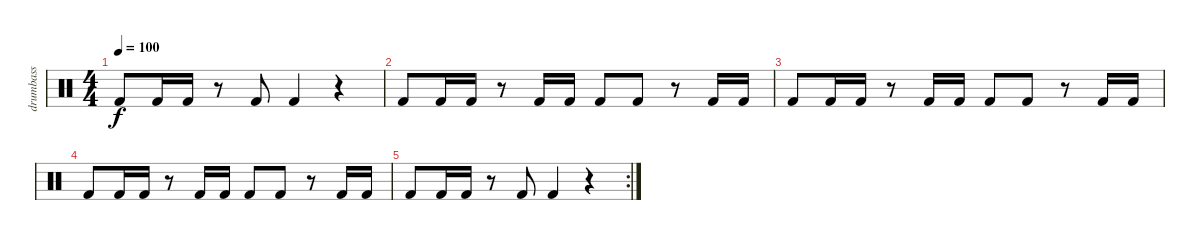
\track ("drumbass" "drumbass") {instrument percussion}
\staff {score}
\articulation defaults
\ts (4 4)
\tempo 100
\clef neutral
\ks c "Kick (hit) 2".8{dy f} "Kick (hit) 2".16 "Kick (hit) 2".16
r.8 "Kick (hit) 2".8 "Kick (hit) 2".4 r.4 |
"Kick (hit) 2".8 "Kick (hit) 2".16 "Kick (hit) 2".16 r.8 "Kick (hit) 2".16 "Kick (hit) 2".16 "Kick (hit) 2".8 "Kick (hit) 2".8 r.8 "Kick (hit) 2".16 "Kick (hit) 2".16 |
"Kick (hit) 2".8 "Kick (hit) 2".16 "Kick (hit) 2".16 r.8 "Kick (hit) 2".16 "Kick (hit) 2".16 "Kick (hit) 2".8 "Kick (hit) 2".8 r.8 "Kick (hit) 2".16 "Kick (hit) 2".16 |
"Kick (hit) 2".8 "Kick (hit) 2".16 "Kick (hit) 2".16 r.8 "Kick (hit) 2".16 "Kick (hit) 2".16 "Kick (hit) 2".8 "Kick (hit) 2".8 r.8 "Kick (hit) 2".16 "Kick (hit) 2".16 |
\rc 2 "Kick (hit) 2".8 "Kick (hit) 2".16 "Kick (hit) 2".16
r.8 "Kick (hit) 2".8 "Kick (hit) 2".4 r.4
